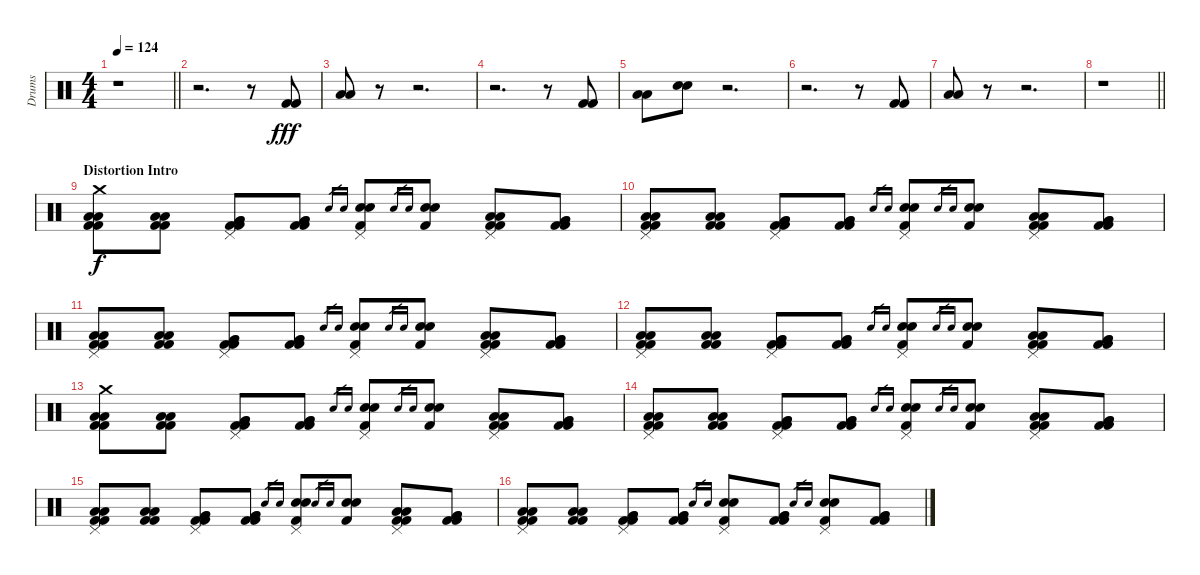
\track ("Drums" "Drums") {instrument percussion}
\staff {score}
\articulation defaults
\ts (4 4)
\tempo 124
\clef neutral
\barLineRight lightlight
\ks c
r.1{dy fff} |
\section ("" "")
r.2{d} r.8 ("Kick (hit) 2" "Kick (hit) 2").8 |
("Low Tom (hit)" "Low Tom (hit)").8 r.8 r.2{d} |
r.2{d} r.8 ("Kick (hit) 2" "Kick (hit) 2").8 |
("Low Tom (hit)" "Low Tom (hit)").8 ("Electric Snare (hit)" "Electric Snare (hit)").8 r.2{d} |
r.2{d} r.8 ("Kick (hit) 2" "Kick (hit) 2").8 |
("Low Tom (hit)" "Low Tom (hit)").8 r.8 r.2{d} |
\barLineRight lightlight
r.1 |
\section ("" "Distortion Intro")
("Crash medium (hit)" "Low Tom (hit)" "Low Tom (hit)" "Kick (hit) 2" "Kick (hit) 2").8{dy f} ("Low Tom (hit)" "Low Tom (hit)" "Kick (hit) 2" "Kick (hit) 2").8 ("Pedal Hi-Hat (hit)" "Very Low Tom (hit)" "Very Low Tom (hit)" "Kick (hit) 2" "Kick (hit) 2").8 ("Very Low Tom (hit)" "Very Low Tom (hit)" "Kick (hit) 2" "Kick (hit) 2").8 "Electric Snare (hit)".16{gr} "Electric Snare (hit)".16{gr} ("Pedal Hi-Hat (hit)" "Electric Snare (hit)" "Electric Snare (hit)" "Kick (hit) 2").8 "Electric Snare (hit)".16{gr} "Electric Snare (hit)".16{gr} ("Electric Snare (hit)" "Electric Snare (hit)" "Kick (hit) 2").8 ("Pedal Hi-Hat (hit)" "Low Tom (hit)" "Low Tom (hit)" "Kick (hit) 2" "Kick (hit) 2").8 ("Very Low Tom (hit)" "Very Low Tom (hit)" "Kick (hit) 2" "Kick (hit) 2").8 |
("Pedal Hi-Hat (hit)" "Low Tom (hit)" "Low Tom (hit)" "Kick (hit) 2" "Kick (hit) 2").8 ("Low Tom (hit)" "Low Tom (hit)" "Kick (hit) 2" "Kick (hit) 2").8 ("Pedal Hi-Hat (hit)" "Very Low Tom (hit)" "Very Low Tom (hit)" "Kick (hit) 2" "Kick (hit) 2").8 ("Very Low Tom (hit)" "Very Low Tom (hit)" "Kick (hit) 2" "Kick (hit) 2").8 "Electric Snare (hit)".16{gr} "Electric Snare (hit)".16{gr} ("Pedal Hi-Hat (hit)" "Electric Snare (hit)" "Electric Snare (hit)" "Kick (hit) 2").8 "Electric Snare (hit)".16{gr} "Electric Snare (hit)".16{gr} ("Electric Snare (hit)" "Electric Snare (hit)" "Kick (hit) 2").8 ("Pedal Hi-Hat (hit)" "Low Tom (hit)" "Low Tom (hit)" "Kick (hit) 2" "Kick (hit) 2").8 ("Very Low Tom (hit)" "Very Low Tom (hit)" "Kick (hit) 2" "Kick (hit) 2").8 |
("Pedal Hi-Hat (hit)" "Low Tom (hit)" "Low Tom (hit)" "Kick (hit) 2" "Kick (hit) 2").8 ("Low Tom (hit)" "Low Tom (hit)" "Kick (hit) 2" "Kick (hit) 2").8 ("Pedal Hi-Hat (hit)" "Very Low Tom (hit)" "Very Low Tom (hit)" "Kick (hit) 2" "Kick (hit) 2").8 ("Very Low Tom (hit)" "Very Low Tom (hit)" "Kick (hit) 2" "Kick (hit) 2").8 "Electric Snare (hit)".16{gr} "Electric Snare (hit)".16{gr} ("Pedal Hi-Hat (hit)" "Electric Snare (hit)" "Electric Snare (hit)" "Kick (hit) 2").8 "Electric Snare (hit)".16{gr} "Electric Snare (hit)".16{gr} ("Electric Snare (hit)" "Electric Snare (hit)" "Kick (hit) 2").8 ("Pedal Hi-Hat (hit)" "Low Tom (hit)" "Low Tom (hit)" "Kick (hit) 2" "Kick (hit) 2").8 ("Very Low Tom (hit)" "Very Low Tom (hit)" "Kick (hit) 2" "Kick (hit) 2").8 |
("Pedal Hi-Hat (hit)" "Low Tom (hit)" "Low Tom (hit)" "Kick (hit) 2" "Kick (hit) 2").8 ("Low Tom (hit)" "Low Tom (hit)" "Kick (hit) 2" "Kick (hit) 2").8 ("Pedal Hi-Hat (hit)" "Very Low Tom (hit)" "Very Low Tom (hit)" "Kick (hit) 2" "Kick (hit) 2").8 ("Very Low Tom (hit)" "Very Low Tom (hit)" "Kick (hit) 2" "Kick (hit) 2").8 "Electric Snare (hit)".16{gr} "Electric Snare (hit)".16{gr} ("Pedal Hi-Hat (hit)" "Electric Snare (hit)" "Electric Snare (hit)" "Kick (hit) 2").8 "Electric Snare (hit)".16{gr} "Electric Snare (hit)".16{gr} ("Electric Snare (hit)" "Electric Snare (hit)" "Kick (hit) 2").8 ("Pedal Hi-Hat (hit)" "Low Tom (hit)" "Low Tom (hit)" "Kick (hit) 2" "Kick (hit) 2").8 ("Very Low Tom (hit)" "Very Low Tom (hit)" "Kick (hit) 2" "Kick (hit) 2").8 |
("Crash medium (hit)" "Low Tom (hit)" "Low Tom (hit)" "Kick (hit) 2" "Kick (hit) 2").8 ("Low Tom (hit)" "Low Tom (hit)" "Kick (hit) 2" "Kick (hit) 2").8 ("Pedal Hi-Hat (hit)" "Very Low Tom (hit)" "Very Low Tom (hit)" "Kick (hit) 2" "Kick (hit) 2").8 ("Very Low Tom (hit)" "Very Low Tom (hit)" "Kick (hit) 2" "Kick (hit) 2").8 "Electric Snare (hit)".16{gr} "Electric Snare (hit)".16{gr} ("Pedal Hi-Hat (hit)" "Electric Snare (hit)" "Electric Snare (hit)" "Kick (hit) 2").8 "Electric Snare (hit)".16{gr} "Electric Snare (hit)".16{gr} ("Electric Snare (hit)" "Electric Snare (hit)" "Kick (hit) 2").8 ("Pedal Hi-Hat (hit)" "Low Tom (hit)" "Low Tom (hit)" "Kick (hit) 2" "Kick (hit) 2").8 ("Very Low Tom (hit)" "Very Low Tom (hit)" "Kick (hit) 2" "Kick (hit) 2").8 |
("Pedal Hi-Hat (hit)" "Low Tom (hit)" "Low Tom (hit)" "Kick (hit) 2" "Kick (hit) 2").8 ("Low Tom (hit)" "Low Tom (hit)" "Kick (hit) 2" "Kick (hit) 2").8 ("Pedal Hi-Hat (hit)" "Very Low Tom (hit)" "Very Low Tom (hit)" "Kick (hit) 2" "Kick (hit) 2").8 ("Very Low Tom (hit)" "Very Low Tom (hit)" "Kick (hit) 2" "Kick (hit) 2").8 "Electric Snare (hit)".16{gr} "Electric Snare (hit)".16{gr} ("Pedal Hi-Hat (hit)" "Electric Snare (hit)" "Electric Snare (hit)" "Kick (hit) 2").8 "Electric Snare (hit)".16{gr} "Electric Snare (hit)".16{gr} ("Electric Snare (hit)" "Electric Snare (hit)" "Kick (hit) 2").8 ("Pedal Hi-Hat (hit)" "Low Tom (hit)" "Low Tom (hit)" "Kick (hit) 2" "Kick (hit) 2").8 ("Very Low Tom (hit)" "Very Low Tom (hit)" "Kick (hit) 2" "Kick (hit) 2").8 |
("Pedal Hi-Hat (hit)" "Low Tom (hit)" "Low Tom (hit)" "Kick (hit) 2" "Kick (hit) 2").8 ("Low Tom (hit)" "Low Tom (hit)" "Kick (hit) 2" "Kick (hit) 2").8 ("Pedal Hi-Hat (hit)" "Very Low Tom (hit)" "Very Low Tom (hit)" "Kick (hit) 2" "Kick (hit) 2").8 ("Very Low Tom (hit)" "Very Low Tom (hit)" "Kick (hit) 2" "Kick (hit) 2").8 "Electric Snare (hit)".16{gr} "Electric Snare (hit)".16{gr} ("Pedal Hi-Hat (hit)" "Electric Snare (hit)" "Electric Snare (hit)" "Kick (hit) 2").8 "Electric Snare (hit)".16{gr} "Electric Snare (hit)".16{gr} ("Electric Snare (hit)" "Electric Snare (hit)" "Kick (hit) 2").8 ("Pedal Hi-Hat (hit)" "Low Tom (hit)" "Low Tom (hit)" "Kick (hit) 2" "Kick (hit) 2").8 ("Very Low Tom (hit)" "Very Low Tom (hit)" "Kick (hit) 2" "Kick (hit) 2").8 |
("Pedal Hi-Hat (hit)" "Low Tom (hit)" "Low Tom (hit)" "Kick (hit) 2" "Kick (hit) 2").8 ("Low Tom (hit)" "Low Tom (hit)" "Kick (hit) 2" "Kick (hit) 2").8 ("Pedal Hi-Hat (hit)" "Very Low Tom (hit)" "Very Low Tom (hit)" "Kick (hit) 2" "Kick (hit) 2").8 ("Very Low Tom (hit)" "Very Low Tom (hit)" "Kick (hit) 2" "Kick (hit) 2").8 "Electric Snare (hit)".16{gr} "Electric Snare (hit)".16{gr} ("Pedal Hi-Hat (hit)" "Electric Snare (hit)" "Electric Snare (hit)" "Kick (hit) 2").8 ("Very Low Tom (hit)" "Very Low Tom (hit)" "Kick (hit) 2" "Kick (hit) 2").8 "Electric Snare (hit)".16{gr} "Electric Snare (hit)".16{gr} ("Pedal Hi-Hat (hit)" "Electric Snare (hit)" "Electric Snare (hit)" "Kick (hit) 2").8 ("Very Low Tom (hit)" "Very Low Tom (hit)" "Kick (hit) 2" "Kick (hit) 2").8
